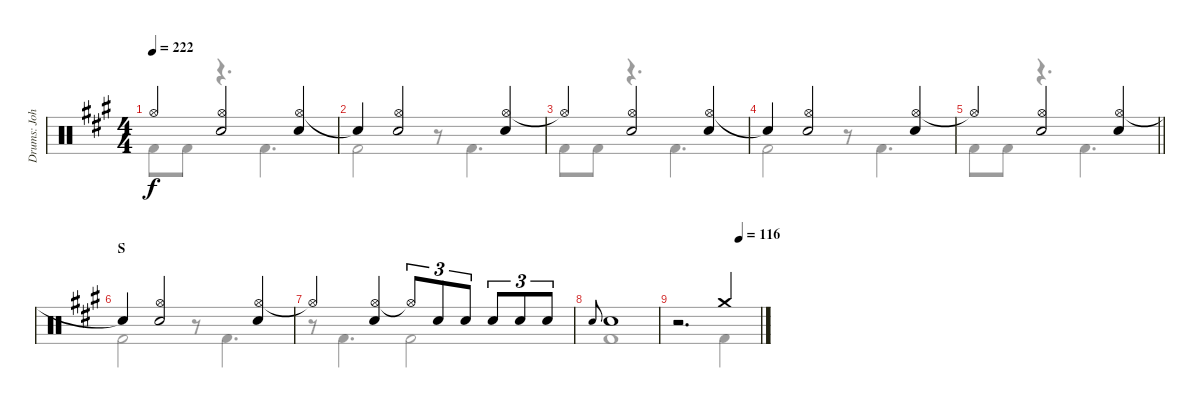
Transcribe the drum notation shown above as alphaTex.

\track ("Drums: John" "Drums: Joh") {instrument percussion}
\staff {score}
\articulation defaults
\voice
\ts (4 4)
\tempo 222
\clef neutral
\ks a "Hi-Hat (open)"{t}.4{dy f}
("Hi-Hat (open)" "Electric Snare (hit)").2 ("Hi-Hat (open)" "Electric Snare (hit)").4 |
"Snare (hit)"{t}.4 ("Hi-Hat (open)" "Electric Snare (hit)").2 ("Hi-Hat (open)" "Electric Snare (hit)").4 |
"Hi-Hat (open)"{t}.4 ("Hi-Hat (open)" "Electric Snare (hit)").2 ("Hi-Hat (open)" "Electric Snare (hit)").4 |
"Snare (hit)"{t}.4 ("Hi-Hat (open)" "Electric Snare (hit)").2 ("Hi-Hat (open)" "Electric Snare (hit)").4 |
\barLineRight lightlight "Hi-Hat (open)"{t}.4
("Hi-Hat (open)" "Electric Snare (hit)").2 ("Hi-Hat (open)" "Electric Snare (hit)").4 |
\section ("" "S")
"Snare (hit)"{t}.4 ("Hi-Hat (open)" "Electric Snare (hit)").2 ("Hi-Hat (open)" "Electric Snare (hit)").4 |
"Hi-Hat (open)"{t}.4 ("Hi-Hat (open)" "Electric Snare (hit)").4 "Hi-Hat (open)"{t}.8{tu (3 2)} "Electric Snare (hit)".8{tu (3 2)} "Electric Snare (hit)".8{tu (3 2)} "Electric Snare (hit)".8{tu (3 2)} "Electric Snare (hit)".8{tu (3 2)} "Electric Snare (hit)".8{tu (3 2)} |
"Snare (hit) 2".8{gr onbeat} "Electric Snare (hit)".1 |
\tempo (116 0.75)
r.2{d} "Crash medium (hit)".4
\voice
\clef neutral
\ottava regular
\simile none
\ks a "Kick (hit) 2".8{dy f} "Kick (hit) 2".8
r.4{d} "Kick (hit) 2".4{d} |
"Kick (hit) 2".2 r.8 "Kick (hit) 2".4{d} |
"Kick (hit) 2".8 "Kick (hit) 2".8 r.4{d} "Kick (hit) 2".4{d} |
"Kick (hit) 2".2 r.8 "Kick (hit) 2".4{d} |
\barLineRight lightlight "Kick (hit) 2".8 "Kick (hit) 2".8
r.4{d} "Kick (hit) 2".4{d} |
"Kick (hit) 2".2 r.8 "Kick (hit) 2".4{d} |
r.8 "Kick (hit) 2".4{d} "Kick (hit) 2".2 |
"Kick (hit) 2".1 |
r.2{d} "Kick (hit) 2".4
